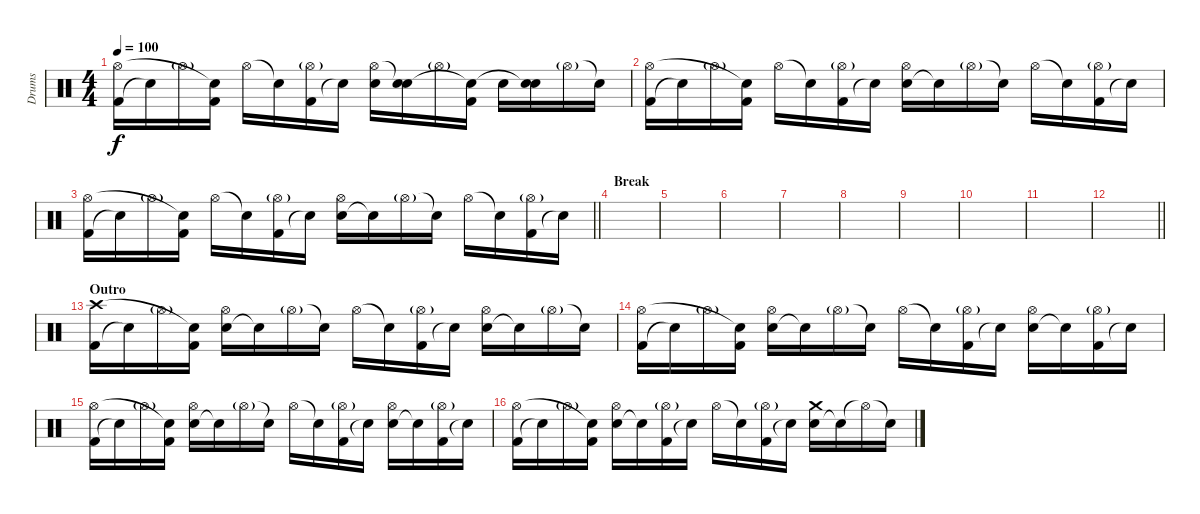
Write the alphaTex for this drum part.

\track ("Drums" "Drums") {instrument percussion}
\staff {score}
\articulation defaults
\ts (4 4)
\tempo 100
\clef neutral
\ks c
("Kick (hit) 2" "Hi-Hat (open)").16{dy f} "Snare (hit)"{t}.16 "Hi-Hat (open)"{g}.16 ("Kick (hit) 2" "Snare (hit)"{t}).16 "Hi-Hat (open)".16 "Snare (hit)"{t}.16 ("Kick (hit) 2" "Hi-Hat (open)"{g}).16 "Snare (hit)"{t}.16 ("Snare (hit) 2" "Hi-Hat (open)").16 ("Snare (hit) 2" "Snare (hit)"{t}).16 "Hi-Hat (open)"{g}.16 ("Kick (hit) 2" "Snare (hit)"{t}).16 "Snare (hit) 2".16 ("Snare (hit) 2" "Snare (hit)"{t}).16 "Hi-Hat (open)"{g}.16 "Snare (hit)"{t}.16 |
("Kick (hit) 2" "Hi-Hat (open)").16 "Snare (hit)"{t}.16 "Hi-Hat (open)"{g}.16 ("Kick (hit) 2" "Snare (hit)"{t}).16 "Hi-Hat (open)".16 "Snare (hit)"{t}.16 ("Kick (hit) 2" "Hi-Hat (open)"{g}).16 "Snare (hit)"{t}.16 ("Snare (hit) 2" "Hi-Hat (open)").16 "Snare (hit)"{t}.16 "Hi-Hat (open)"{g}.16 "Snare (hit)"{t}.16 "Hi-Hat (open)".16 "Snare (hit)"{t}.16 ("Kick (hit) 2" "Hi-Hat (open)"{g}).16 "Snare (hit)"{t}.16 |
\barLineRight lightlight
("Kick (hit) 2" "Hi-Hat (open)").16 "Snare (hit)"{t}.16 "Hi-Hat (open)"{g}.16 ("Kick (hit) 2" "Snare (hit)"{t}).16 "Hi-Hat (open)".16 "Snare (hit)"{t}.16 ("Kick (hit) 2" "Hi-Hat (open)"{g}).16 "Snare (hit)"{t}.16 ("Snare (hit) 2" "Hi-Hat (open)").16 "Snare (hit)"{t}.16 "Hi-Hat (open)"{g}.16 "Snare (hit)"{t}.16 "Hi-Hat (open)".16 "Snare (hit)"{t}.16 ("Kick (hit) 2" "Hi-Hat (open)"{g}).16 "Snare (hit)"{t}.16 |
\section ("" "Break")
|
|
|
|
|
|
|
|
\barLineRight lightlight
|
\section ("" "Outro")
("Kick (hit) 2" "Crash high (hit)").16 "Snare (hit)"{t}.16 "Hi-Hat (open)"{g}.16 ("Kick (hit) 2" "Snare (hit)"{t}).16 ("Snare (hit) 2" "Hi-Hat (open)").16 "Snare (hit)"{t}.16 "Hi-Hat (open)"{g}.16 "Snare (hit)"{t}.16 "Hi-Hat (open)".16 "Snare (hit)"{t}.16 ("Kick (hit) 2" "Hi-Hat (open)"{g}).16 "Snare (hit)"{t}.16 ("Snare (hit) 2" "Hi-Hat (open)").16 "Snare (hit)"{t}.16 "Hi-Hat (open)"{g}.16 "Snare (hit)"{t}.16 |
("Kick (hit) 2" "Hi-Hat (open)").16 "Snare (hit)"{t}.16 "Hi-Hat (open)"{g}.16 ("Kick (hit) 2" "Snare (hit)"{t}).16 ("Snare (hit) 2" "Hi-Hat (open)").16 "Snare (hit)"{t}.16 "Hi-Hat (open)"{g}.16 "Snare (hit)"{t}.16 "Hi-Hat (open)".16 "Snare (hit)"{t}.16 ("Kick (hit) 2" "Hi-Hat (open)"{g}).16 "Snare (hit)"{t}.16 ("Snare (hit) 2" "Hi-Hat (open)").16 "Snare (hit)"{t}.16 ("Kick (hit) 2" "Hi-Hat (open)"{g}).16 "Snare (hit)"{t}.16 |
("Kick (hit) 2" "Hi-Hat (open)").16 "Snare (hit)"{t}.16 "Hi-Hat (open)"{g}.16 ("Kick (hit) 2" "Snare (hit)"{t}).16 ("Snare (hit) 2" "Hi-Hat (open)").16 "Snare (hit)"{t}.16 "Hi-Hat (open)"{g}.16 "Snare (hit)"{t}.16 "Hi-Hat (open)".16 "Snare (hit)"{t}.16 ("Kick (hit) 2" "Hi-Hat (open)"{g}).16 "Snare (hit)"{t}.16 ("Snare (hit) 2" "Hi-Hat (open)").16 "Snare (hit)"{t}.16 ("Kick (hit) 2" "Hi-Hat (open)"{g}).16 "Snare (hit)"{t}.16 |
("Kick (hit) 2" "Hi-Hat (open)").16 "Snare (hit)"{t}.16 "Hi-Hat (open)"{g}.16 ("Kick (hit) 2" "Snare (hit)"{t}).16 ("Snare (hit) 2" "Hi-Hat (open)").16 "Snare (hit)"{t}.16 ("Kick (hit) 2" "Hi-Hat (open)"{g}).16 "Snare (hit)"{t}.16 "Hi-Hat (open)".16 "Snare (hit)"{t}.16 ("Kick (hit) 2" "Hi-Hat (open)"{g}).16 "Snare (hit)"{t}.16 ("Snare (hit) 2" "Crash medium (hit)").16 "Snare (hit)"{t}.16 "Hi-Hat (open)"{t}.16 "Snare (hit)"{t}.16
